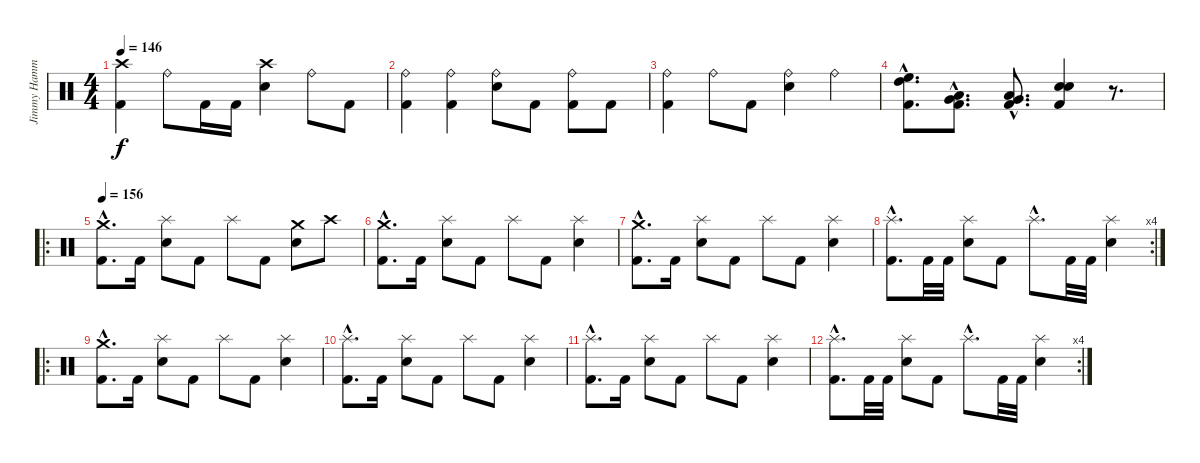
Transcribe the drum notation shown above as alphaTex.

\track ("Jimmy Hammer" "Jimmy Hamm") {instrument percussion}
\staff {score}
\articulation defaults
\ts (4 4)
\tempo 146
\clef neutral
\ks c
("Kick (hit) 2" "Crash high (hit)").4{dy f} "Ride (bell)".8 "Kick (hit) 2".16 "Kick (hit) 2".16 ("Snare (hit) 2" "Crash high (hit)").4 "Ride (bell)".8 "Kick (hit) 2".8 |
("Kick (hit) 2" "Ride (bell)").4 ("Kick (hit) 2" "Ride (bell)").4 ("Snare (hit) 2" "Ride (bell)").8 "Kick (hit) 2".8 ("Kick (hit) 2" "Ride (bell)").8 "Kick (hit) 2".8 |
("Kick (hit) 2" "Ride (bell)").4 "Ride (bell)".8 "Kick (hit) 2".8 ("Snare (hit) 2" "Ride (bell)").4 "Ride (bell)".4 |
("Kick (hit) 2"{hac} "High Tom (hit)"{hac} "High Floor Tom (hit)"{hac}).8{d} ("Kick (hit) 2"{hac} "Low Floor Tom (hit)"{hac} "Very Low Tom (hit)"{hac}).8{d} ("Kick (hit) 2"{hac} "Low Floor Tom (hit)"{hac} "Very Low Tom (hit)"{hac}).8{d} ("Kick (hit) 2" "Snare (hit) 2" "Electric Snare (hit)").4 r.8{d} |
\ro
\tempo 156
("Kick (hit) 2"{hac} "Crash medium (hit)"{hac}).8{d} "Kick (hit) 2".16 ("Snare (hit) 2" "Splash (hit)").8 "Kick (hit) 2".8 "Splash (hit)".8 "Kick (hit) 2".8 ("Snare (hit) 2" "Crash medium (hit)").8 "Crash high (hit)".8 |
("Kick (hit) 2"{hac} "Crash medium (hit)"{hac}).8{d} "Kick (hit) 2".16 ("Snare (hit) 2" "Splash (hit)").8 "Kick (hit) 2".8 "Splash (hit)".8 "Kick (hit) 2".8 ("Snare (hit) 2" "Splash (hit)").4 |
("Kick (hit) 2"{hac} "Crash medium (hit)"{hac}).8{d} "Kick (hit) 2".16 ("Snare (hit) 2" "Splash (hit)").8 "Kick (hit) 2".8 "Splash (hit)".8 "Kick (hit) 2".8 ("Snare (hit) 2" "Splash (hit)").4 |
\rc 4
("Kick (hit) 2"{hac} "Splash (hit)"{hac}).8{d} "Kick (hit) 2".32 "Kick (hit) 2".32 ("Snare (hit) 2" "Splash (hit)").8 "Kick (hit) 2".8 "Splash (hit)"{hac}.8{d} "Kick (hit) 2".32 "Kick (hit) 2".32 ("Snare (hit) 2" "Splash (hit)").4 |
\ro
("Kick (hit) 2"{hac} "Crash medium (hit)"{hac}).8{d} "Kick (hit) 2".16 ("Snare (hit) 2" "Splash (hit)").8 "Kick (hit) 2".8 "Splash (hit)".8 "Kick (hit) 2".8 ("Snare (hit) 2" "Splash (hit)").4 |
("Kick (hit) 2"{hac} "Splash (hit)"{hac}).8{d} "Kick (hit) 2".16 ("Snare (hit) 2" "Splash (hit)").8 "Kick (hit) 2".8 "Splash (hit)".8 "Kick (hit) 2".8 ("Snare (hit) 2" "Splash (hit)").4 |
("Kick (hit) 2"{hac} "Splash (hit)"{hac}).8{d} "Kick (hit) 2".16 ("Snare (hit) 2" "Splash (hit)").8 "Kick (hit) 2".8 "Splash (hit)".8 "Kick (hit) 2".8 ("Snare (hit) 2" "Splash (hit)").4 |
\rc 4
("Kick (hit) 2"{hac} "Splash (hit)"{hac}).8{d} "Kick (hit) 2".32 "Kick (hit) 2".32 ("Snare (hit) 2" "Splash (hit)").8 "Kick (hit) 2".8 "Splash (hit)"{hac}.8{d} "Kick (hit) 2".32 "Kick (hit) 2".32 ("Snare (hit) 2" "Splash (hit)").4
